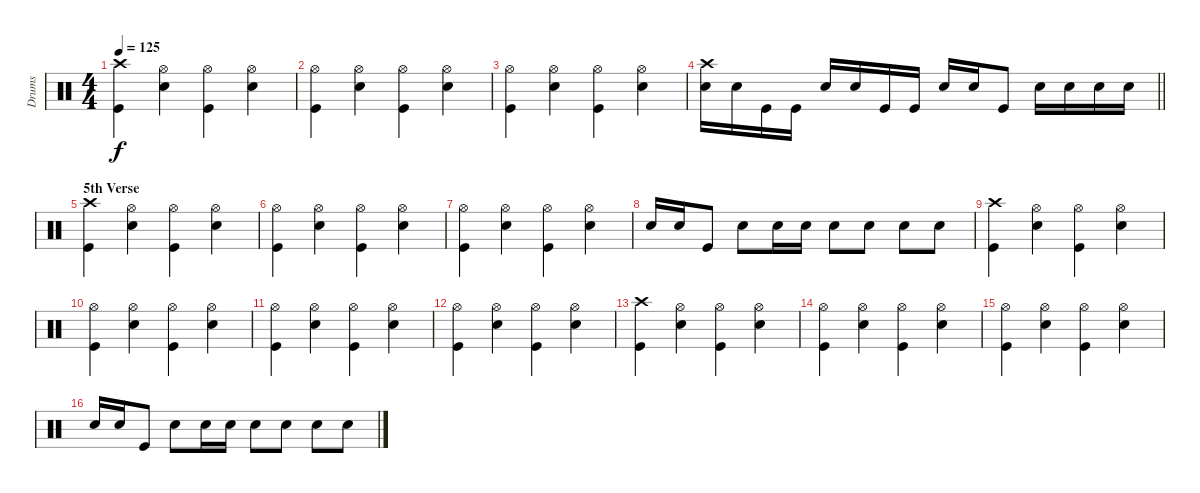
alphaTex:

\track ("Drums" "Drums") {instrument percussion}
\staff {score}
\articulation defaults
\ts (4 4)
\tempo 125
\clef neutral
\ks c
("Crash high (hit)" "Kick (hit)").4{dy f} ("Hi-Hat (open)" "Electric Snare (hit)").4 ("Hi-Hat (open)" "Kick (hit)").4 ("Hi-Hat (open)" "Electric Snare (hit)").4 |
("Hi-Hat (open)" "Kick (hit)").4 ("Hi-Hat (open)" "Electric Snare (hit)").4 ("Hi-Hat (open)" "Kick (hit)").4 ("Hi-Hat (open)" "Electric Snare (hit)").4 |
("Hi-Hat (open)" "Kick (hit)").4 ("Hi-Hat (open)" "Electric Snare (hit)").4 ("Hi-Hat (open)" "Kick (hit)").4 ("Hi-Hat (open)" "Electric Snare (hit)").4 |
\barLineRight lightlight
("Crash high (hit)" "Electric Snare (hit)").16 "Electric Snare (hit)".16 "Kick (hit)".16 "Kick (hit)".16 "Electric Snare (hit)".16 "Electric Snare (hit)".16 "Kick (hit)".16 "Kick (hit)".16 "Electric Snare (hit)".16 "Electric Snare (hit)".16 "Kick (hit)".8 "Electric Snare (hit)".16 "Electric Snare (hit)".16 "Electric Snare (hit)".16 "Electric Snare (hit)".16 |
\section ("" "5th Verse")
("Crash high (hit)" "Kick (hit)").4 ("Hi-Hat (open)" "Electric Snare (hit)").4 ("Hi-Hat (open)" "Kick (hit)").4 ("Hi-Hat (open)" "Electric Snare (hit)").4 |
("Hi-Hat (open)" "Kick (hit)").4 ("Hi-Hat (open)" "Electric Snare (hit)").4 ("Hi-Hat (open)" "Kick (hit)").4 ("Hi-Hat (open)" "Electric Snare (hit)").4 |
("Hi-Hat (open)" "Kick (hit)").4 ("Hi-Hat (open)" "Electric Snare (hit)").4 ("Hi-Hat (open)" "Kick (hit)").4 ("Hi-Hat (open)" "Electric Snare (hit)").4 |
"Electric Snare (hit)".16 "Electric Snare (hit)".16 "Kick (hit)".8 "Electric Snare (hit)".8 "Electric Snare (hit)".16 "Electric Snare (hit)".16 "Electric Snare (hit)".8 "Electric Snare (hit)".8 "Electric Snare (hit)".8 "Electric Snare (hit)".8 |
("Crash high (hit)" "Kick (hit)").4 ("Hi-Hat (open)" "Electric Snare (hit)").4 ("Hi-Hat (open)" "Kick (hit)").4 ("Hi-Hat (open)" "Electric Snare (hit)").4 |
("Hi-Hat (open)" "Kick (hit)").4 ("Hi-Hat (open)" "Electric Snare (hit)").4 ("Hi-Hat (open)" "Kick (hit)").4 ("Hi-Hat (open)" "Electric Snare (hit)").4 |
("Hi-Hat (open)" "Kick (hit)").4 ("Hi-Hat (open)" "Electric Snare (hit)").4 ("Hi-Hat (open)" "Kick (hit)").4 ("Hi-Hat (open)" "Electric Snare (hit)").4 |
("Hi-Hat (open)" "Kick (hit)").4 ("Hi-Hat (open)" "Electric Snare (hit)").4 ("Hi-Hat (open)" "Kick (hit)").4 ("Hi-Hat (open)" "Electric Snare (hit)").4 |
("Crash high (hit)" "Kick (hit)").4 ("Hi-Hat (open)" "Electric Snare (hit)").4 ("Hi-Hat (open)" "Kick (hit)").4 ("Hi-Hat (open)" "Electric Snare (hit)").4 |
("Hi-Hat (open)" "Kick (hit)").4 ("Hi-Hat (open)" "Electric Snare (hit)").4 ("Hi-Hat (open)" "Kick (hit)").4 ("Hi-Hat (open)" "Electric Snare (hit)").4 |
("Hi-Hat (open)" "Kick (hit)").4 ("Hi-Hat (open)" "Electric Snare (hit)").4 ("Hi-Hat (open)" "Kick (hit)").4 ("Hi-Hat (open)" "Electric Snare (hit)").4 |
"Electric Snare (hit)".16 "Electric Snare (hit)".16 "Kick (hit)".8 "Electric Snare (hit)".8 "Electric Snare (hit)".16 "Electric Snare (hit)".16 "Electric Snare (hit)".8 "Electric Snare (hit)".8 "Electric Snare (hit)".8 "Electric Snare (hit)".8
